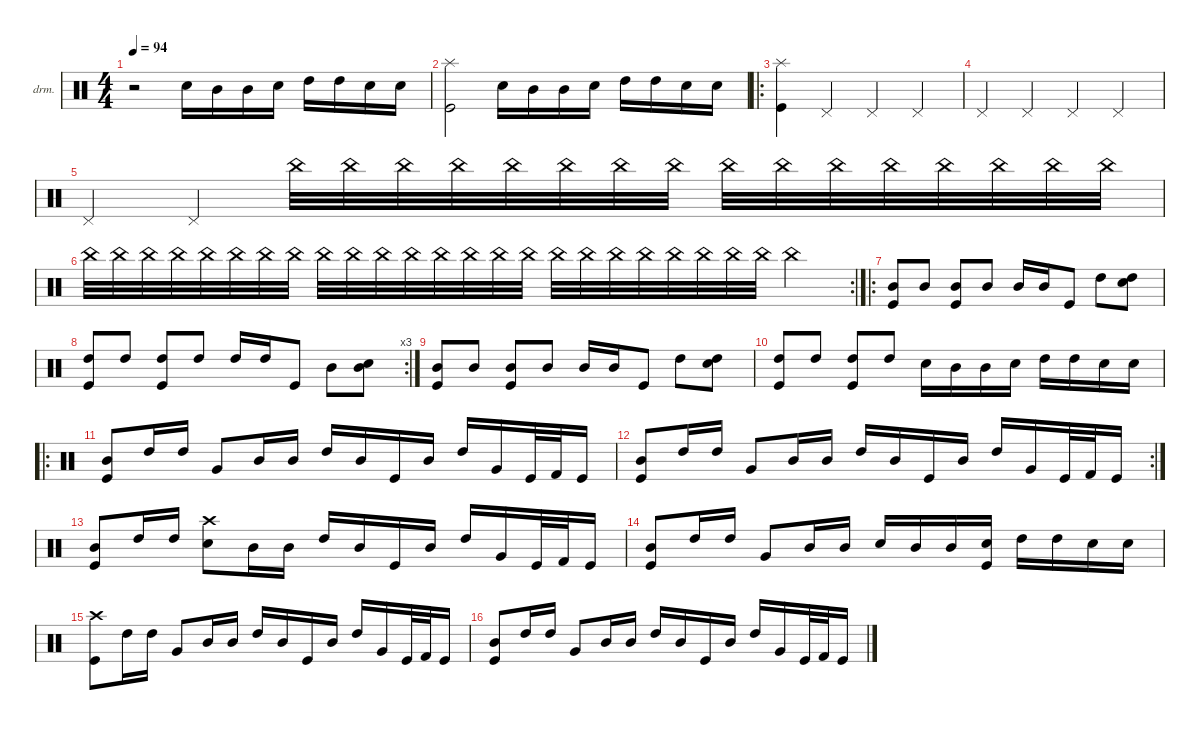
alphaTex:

\defaultSystemsLayout 4
\hideDynamics
\bracketExtendMode nobrackets
\firstSystemTrackNameOrientation horizontal
\otherSystemsTrackNameOrientation horizontal
\track ("Lars Ulrich" "drm.") {instrument percussion}
\staff {score}
\articulation defaults
\ts (4 4)
\beaming (8 2 2 2 2)
\tempo 94
\clef neutral
\ks c
r.2{dy f} "Snare (hit) 2".16 "Mid Tom (hit)".16 "Mid Tom (hit)".16 "Snare (hit) 2".16 "High Tom (hit)".16 "High Tom (hit)".16 "Snare (hit) 2".16 "Snare (hit) 2".16 |
("Splash (hit)" "Kick (hit)").2 "Snare (hit) 2".16 "Mid Tom (hit)".16 "Mid Tom (hit)".16 "Snare (hit) 2".16 "High Tom (hit)".16 "High Tom (hit)".16 "Snare (hit) 2".16 "Snare (hit) 2".16 |
\ro
("Splash (hit)" "Kick (hit)").4{dy fff} "Pedal Hi-Hat (hit)".4{dy ff} "Pedal Hi-Hat (hit)".4 "Pedal Hi-Hat (hit)".4 |
"Pedal Hi-Hat (hit)".4 "Pedal Hi-Hat (hit)".4 "Pedal Hi-Hat (hit)".4 "Pedal Hi-Hat (hit)".4 |
"Pedal Hi-Hat (hit)".4 "Pedal Hi-Hat (hit)".4 "China (hit)".32{dy pp} "China (hit)".32 "China (hit)".32 "China (hit)".32 "China (hit)".32 "China (hit)".32 "China (hit)".32 "China (hit)".32 "China (hit)".32{dy p} "China (hit)".32 "China (hit)".32 "China (hit)".32 "China (hit)".32 "China (hit)".32 "China (hit)".32 "China (hit)".32 |
\rc 2 "China (hit)".32{dy mp} "China (hit)".32 "China (hit)".32 "China (hit)".32 "China (hit)".32 "China (hit)".32 "China (hit)".32 "China (hit)".32 "China (hit)".32{dy mf} "China (hit)".32 "China (hit)".32 "China (hit)".32 "China (hit)".32 "China (hit)".32 "China (hit)".32 "China (hit)".32 "China (hit)".32{dy f} "China (hit)".32 "China (hit)".32 "China (hit)".32 "China (hit)".32 "China (hit)".32 "China (hit)".32 "China (hit)".32 "China (hit)".4
|
\ro
("Mid Tom (hit)" "Kick (hit)").8{dy fff} "Mid Tom (hit)".8{dy ff} ("Mid Tom (hit)" "Kick (hit)").8 "Mid Tom (hit)".8 "Mid Tom (hit)".16 "Mid Tom (hit)".16 "Kick (hit)".8 "High Tom (hit)".8 ("High Tom (hit)" "Snare (hit) 2").8 |
\rc 3
("High Tom (hit)" "Kick (hit)").8 "High Tom (hit)".8 ("High Tom (hit)" "Kick (hit)").8 "High Tom (hit)".8 "High Tom (hit)".16 "High Tom (hit)".16 "Kick (hit)".8 "Mid Tom (hit)".8 ("Mid Tom (hit)" "Snare (hit) 2").8 |
("Mid Tom (hit)" "Kick (hit)").8 "Mid Tom (hit)".8 ("Mid Tom (hit)" "Kick (hit)").8 "Mid Tom (hit)".8 "Mid Tom (hit)".16 "Mid Tom (hit)".16 "Kick (hit)".8 "High Tom (hit)".8 ("High Tom (hit)" "Snare (hit) 2").8 |
("High Tom (hit)" "Kick (hit)").8 "High Tom (hit)".8 ("High Tom (hit)" "Kick (hit)").8 "High Tom (hit)".8 "Snare (hit) 2".16 "Mid Tom (hit)".16 "Mid Tom (hit)".16 "Snare (hit) 2".16 "High Tom (hit)".16 "High Tom (hit)".16 "Snare (hit) 2".16 "Snare (hit) 2".16 |
\ro
("Mid Tom (hit)" "Kick (hit)").8 "High Tom (hit)".16 "High Tom (hit)".16 "Very Low Tom (hit)".8 "Mid Tom (hit)".16 "Mid Tom (hit)".16 "High Tom (hit)".16 "Mid Tom (hit)".16 "Kick (hit)".16{dy f} "Mid Tom (hit)".16{dy ff} "High Tom (hit)".16 "Very Low Tom (hit)".16 "Kick (hit)".32{dy f} "Kick (hit) 2".32 "Kick (hit)".16 |
\rc 2
("Mid Tom (hit)" "Kick (hit)").8{dy ff} "High Tom (hit)".16 "High Tom (hit)".16 "Very Low Tom (hit)".8 "Mid Tom (hit)".16 "Mid Tom (hit)".16 "High Tom (hit)".16 "Mid Tom (hit)".16 "Kick (hit)".16{dy f} "Mid Tom (hit)".16{dy ff} "High Tom (hit)".16 "Very Low Tom (hit)".16 "Kick (hit)".32{dy f} "Kick (hit) 2".32 "Kick (hit)".16 |
("Mid Tom (hit)" "Kick (hit)").8{dy ff} "High Tom (hit)".16 "High Tom (hit)".16 ("Crash high (hit)" "Snare (hit) 2").8 "Mid Tom (hit)".16 "Mid Tom (hit)".16 "High Tom (hit)".16 "Mid Tom (hit)".16 "Kick (hit)".16{dy f} "Mid Tom (hit)".16{dy ff} "High Tom (hit)".16 "Very Low Tom (hit)".16 "Kick (hit)".32{dy f} "Kick (hit) 2".32 "Kick (hit)".16 |
("Mid Tom (hit)" "Kick (hit)").8{dy ff} "High Tom (hit)".16 "High Tom (hit)".16 "Very Low Tom (hit)".8 "Mid Tom (hit)".16 "Mid Tom (hit)".16 "Snare (hit) 2".16 "Mid Tom (hit)".16 "Mid Tom (hit)".16 ("Snare (hit) 2" "Kick (hit)").16 "High Tom (hit)".16 "High Tom (hit)".16 "Snare (hit) 2".16 "Snare (hit) 2".16 |
("Crash high (hit)" "Kick (hit)").8{dy f} "High Tom (hit)".16{dy ff} "High Tom (hit)".16 "Very Low Tom (hit)".8 "Mid Tom (hit)".16 "Mid Tom (hit)".16 "High Tom (hit)".16 "Mid Tom (hit)".16 "Kick (hit)".16{dy f} "Mid Tom (hit)".16{dy ff} "High Tom (hit)".16 "Very Low Tom (hit)".16 "Kick (hit)".32{dy f} "Kick (hit) 2".32 "Kick (hit)".16 |
("Mid Tom (hit)" "Kick (hit)").8{dy ff} "High Tom (hit)".16 "High Tom (hit)".16 "Very Low Tom (hit)".8 "Mid Tom (hit)".16 "Mid Tom (hit)".16 "High Tom (hit)".16 "Mid Tom (hit)".16 "Kick (hit)".16{dy f} "Mid Tom (hit)".16{dy ff} "High Tom (hit)".16 "Very Low Tom (hit)".16 "Kick (hit)".32{dy f} "Kick (hit) 2".32 "Kick (hit)".16
